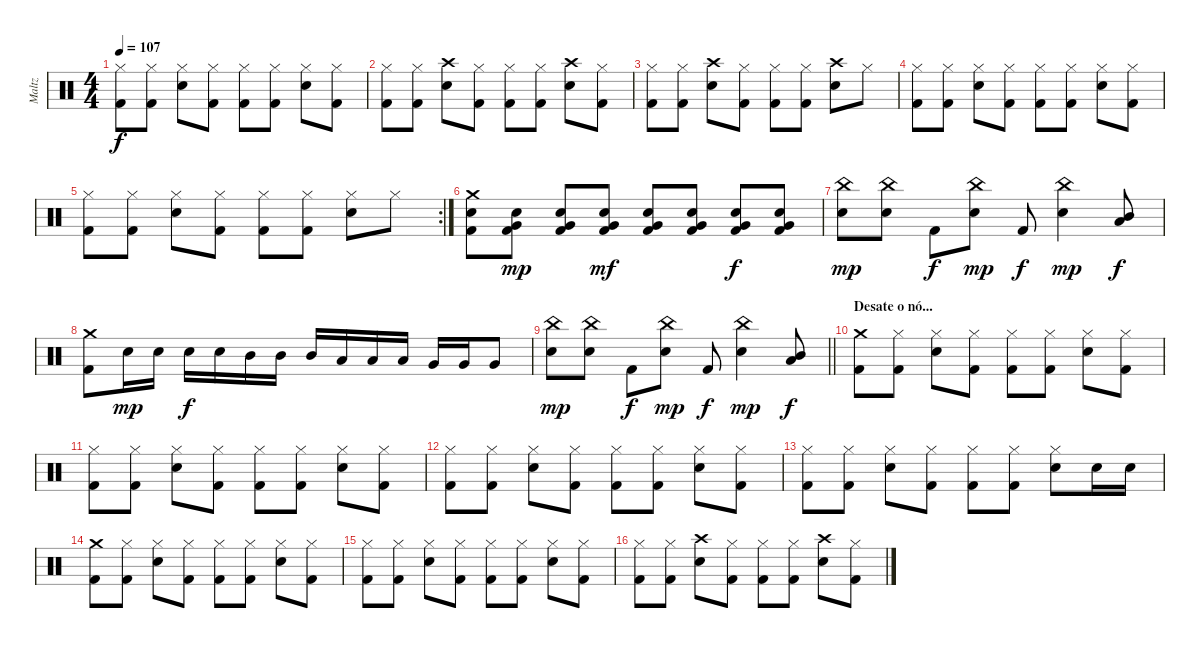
\track ("Maltz" "Maltz") {instrument percussion}
\staff {score}
\articulation defaults
\ts (4 4)
\tempo 107
\clef neutral
\ks c
("Hi-Hat (closed)" "Kick (hit) 2").8{dy f} ("Hi-Hat (closed)" "Kick (hit) 2").8 ("Hi-Hat (closed)" "Snare (hit) 2").8 ("Hi-Hat (closed)" "Kick (hit) 2").8 ("Hi-Hat (closed)" "Kick (hit) 2").8 ("Hi-Hat (closed)" "Kick (hit) 2").8 ("Hi-Hat (closed)" "Snare (hit) 2").8 ("Hi-Hat (closed)" "Kick (hit) 2").8 |
("Hi-Hat (closed)" "Kick (hit) 2").8 ("Hi-Hat (closed)" "Kick (hit) 2").8 ("Crash high (hit)" "Snare (hit) 2").8 ("Hi-Hat (closed)" "Kick (hit) 2").8 ("Hi-Hat (closed)" "Kick (hit) 2").8 ("Hi-Hat (closed)" "Kick (hit) 2").8 ("Crash high (hit)" "Snare (hit) 2").8 ("Hi-Hat (closed)" "Kick (hit) 2").8 |
("Hi-Hat (closed)" "Kick (hit) 2").8 ("Hi-Hat (closed)" "Kick (hit) 2").8 ("Crash high (hit)" "Snare (hit) 2").8 ("Hi-Hat (closed)" "Kick (hit) 2").8 ("Hi-Hat (closed)" "Kick (hit) 2").8 ("Hi-Hat (closed)" "Kick (hit) 2").8 ("Crash high (hit)" "Snare (hit) 2").8 "Hi-Hat (closed)".8 |
("Hi-Hat (closed)" "Kick (hit) 2").8 ("Hi-Hat (closed)" "Kick (hit) 2").8 ("Hi-Hat (closed)" "Snare (hit) 2").8 ("Hi-Hat (closed)" "Kick (hit) 2").8 ("Hi-Hat (closed)" "Kick (hit) 2").8 ("Hi-Hat (closed)" "Kick (hit) 2").8 ("Hi-Hat (closed)" "Snare (hit) 2").8 ("Hi-Hat (closed)" "Kick (hit) 2").8 |
\rc 2
("Hi-Hat (closed)" "Kick (hit) 2").8 ("Hi-Hat (closed)" "Kick (hit) 2").8 ("Hi-Hat (closed)" "Snare (hit) 2").8 ("Hi-Hat (closed)" "Kick (hit) 2").8 ("Hi-Hat (closed)" "Kick (hit) 2").8 ("Hi-Hat (closed)" "Kick (hit) 2").8 ("Hi-Hat (closed)" "Snare (hit) 2").8 "Hi-Hat (closed)".8 |
("Crash medium (hit)" "Snare (hit) 2" "Kick (hit) 2").8 ("Very Low Tom (hit)" "Snare (hit) 2" "Kick (hit) 2").8{dy mp} ("Very Low Tom (hit)" "Snare (hit) 2" "Kick (hit) 2").8 ("Very Low Tom (hit)" "Snare (hit) 2" "Kick (hit) 2").8{dy mf} ("Very Low Tom (hit)" "Snare (hit) 2" "Kick (hit) 2").8 ("Very Low Tom (hit)" "Snare (hit) 2" "Kick (hit) 2").8 ("Very Low Tom (hit)" "Snare (hit) 2" "Kick (hit) 2").8{dy f} ("Very Low Tom (hit)" "Snare (hit) 2" "Kick (hit) 2").8 |
("China (hit)" "Snare (hit) 2").8{dy mp} ("China (hit)" "Snare (hit) 2").8 "Kick (hit) 2".8{dy f} ("China (hit)" "Snare (hit) 2").8{dy mp} "Kick (hit) 2".8{dy f} ("China (hit)" "Snare (hit) 2").4{dy mp} ("Mid Tom (hit)" "Low Tom (hit)").8{dy f} |
("Crash medium (hit)" "Kick (hit) 2").8 "Snare (hit) 2".16{dy mp} "Snare (hit) 2".16 "Snare (hit) 2".16{dy f} "Snare (hit) 2".16 "Mid Tom (hit)".16 "Mid Tom (hit)".16 "Mid Tom (hit)".16 "Low Tom (hit)".16 "Low Tom (hit)".16 "Low Tom (hit)".16 "Very Low Tom (hit)".16 "Very Low Tom (hit)".16 "Very Low Tom (hit)".8 |
\barLineRight lightlight
("China (hit)" "Snare (hit) 2").8{dy mp} ("China (hit)" "Snare (hit) 2").8 "Kick (hit) 2".8{dy f} ("China (hit)" "Snare (hit) 2").8{dy mp} "Kick (hit) 2".8{dy f} ("China (hit)" "Snare (hit) 2").4{dy mp} ("Mid Tom (hit)" "Low Tom (hit)").8{dy f} |
\section ("" "Desate o nó...")
("Crash medium (hit)" "Kick (hit) 2").8 ("Hi-Hat (closed)" "Kick (hit) 2").8 ("Hi-Hat (closed)" "Snare (hit) 2").8 ("Hi-Hat (closed)" "Kick (hit) 2").8 ("Hi-Hat (closed)" "Kick (hit) 2").8 ("Hi-Hat (closed)" "Kick (hit) 2").8 ("Hi-Hat (closed)" "Snare (hit) 2").8 ("Hi-Hat (closed)" "Kick (hit) 2").8 |
("Hi-Hat (closed)" "Kick (hit) 2").8 ("Hi-Hat (closed)" "Kick (hit) 2").8 ("Hi-Hat (closed)" "Snare (hit) 2").8 ("Hi-Hat (closed)" "Kick (hit) 2").8 ("Hi-Hat (closed)" "Kick (hit) 2").8 ("Hi-Hat (closed)" "Kick (hit) 2").8 ("Hi-Hat (closed)" "Snare (hit) 2").8 ("Hi-Hat (closed)" "Kick (hit) 2").8 |
("Hi-Hat (closed)" "Kick (hit) 2").8 ("Hi-Hat (closed)" "Kick (hit) 2").8 ("Hi-Hat (closed)" "Snare (hit) 2").8 ("Hi-Hat (closed)" "Kick (hit) 2").8 ("Hi-Hat (closed)" "Kick (hit) 2").8 ("Hi-Hat (closed)" "Kick (hit) 2").8 ("Hi-Hat (closed)" "Snare (hit) 2").8 ("Hi-Hat (closed)" "Kick (hit) 2").8 |
("Hi-Hat (closed)" "Kick (hit) 2").8 ("Hi-Hat (closed)" "Kick (hit) 2").8 ("Hi-Hat (closed)" "Snare (hit) 2").8 ("Hi-Hat (closed)" "Kick (hit) 2").8 ("Hi-Hat (closed)" "Kick (hit) 2").8 ("Hi-Hat (closed)" "Kick (hit) 2").8 ("Hi-Hat (closed)" "Snare (hit) 2").8 "Snare (hit) 2".16 "Snare (hit) 2".16 |
("Crash medium (hit)" "Kick (hit) 2").8 ("Hi-Hat (closed)" "Kick (hit) 2").8 ("Hi-Hat (closed)" "Snare (hit) 2").8 ("Hi-Hat (closed)" "Kick (hit) 2").8 ("Hi-Hat (closed)" "Kick (hit) 2").8 ("Hi-Hat (closed)" "Kick (hit) 2").8 ("Hi-Hat (closed)" "Snare (hit) 2").8 ("Hi-Hat (closed)" "Kick (hit) 2").8 |
("Hi-Hat (closed)" "Kick (hit) 2").8 ("Hi-Hat (closed)" "Kick (hit) 2").8 ("Hi-Hat (closed)" "Snare (hit) 2").8 ("Hi-Hat (closed)" "Kick (hit) 2").8 ("Hi-Hat (closed)" "Kick (hit) 2").8 ("Hi-Hat (closed)" "Kick (hit) 2").8 ("Hi-Hat (closed)" "Snare (hit) 2").8 ("Hi-Hat (closed)" "Kick (hit) 2").8 |
("Hi-Hat (closed)" "Kick (hit) 2").8 ("Hi-Hat (closed)" "Kick (hit) 2").8 ("Crash high (hit)" "Snare (hit) 2").8 ("Hi-Hat (closed)" "Kick (hit) 2").8 ("Hi-Hat (closed)" "Kick (hit) 2").8 ("Hi-Hat (closed)" "Kick (hit) 2").8 ("Crash high (hit)" "Snare (hit) 2").8 ("Hi-Hat (closed)" "Kick (hit) 2").8
